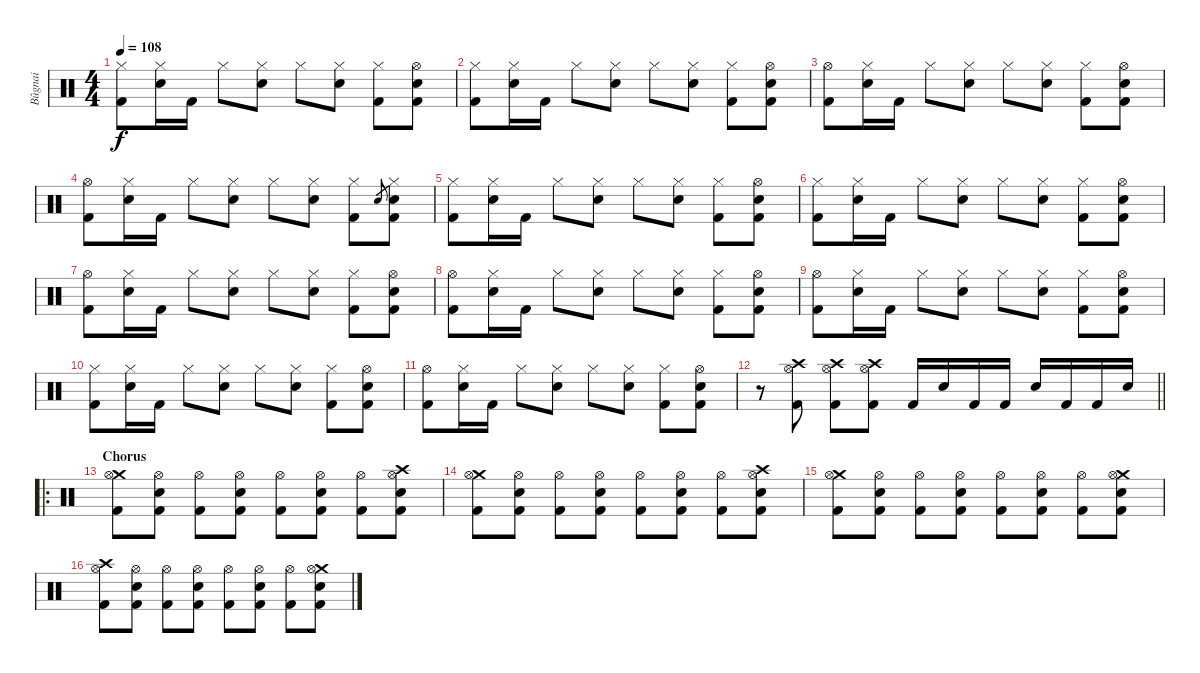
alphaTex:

\track ("Bûgnai" "Bûgnai") {instrument percussion}
\staff {score}
\articulation defaults
\ts (4 4)
\tempo 108
\clef neutral
\ks c
("Hi-Hat (closed)" "Kick (hit) 2").8{dy f} ("Hi-Hat (closed)" "Snare (hit) 2").16 "Kick (hit) 2".16 "Hi-Hat (closed)".8 ("Hi-Hat (closed)" "Snare (hit) 2").8 "Hi-Hat (closed)".8 ("Hi-Hat (closed)" "Snare (hit) 2").8 ("Hi-Hat (closed)" "Kick (hit) 2").8 ("Hi-Hat (open)" "Snare (hit) 2" "Kick (hit) 2").8 |
("Hi-Hat (closed)" "Kick (hit) 2").8 ("Hi-Hat (closed)" "Snare (hit) 2").16 "Kick (hit) 2".16 "Hi-Hat (closed)".8 ("Hi-Hat (closed)" "Snare (hit) 2").8 "Hi-Hat (closed)".8 ("Hi-Hat (closed)" "Snare (hit) 2").8 ("Hi-Hat (closed)" "Kick (hit) 2").8 ("Hi-Hat (open)" "Snare (hit) 2" "Kick (hit) 2").8 |
("Hi-Hat (open)" "Kick (hit) 2").8 ("Hi-Hat (closed)" "Snare (hit) 2").16 "Kick (hit) 2".16 "Hi-Hat (closed)".8 ("Hi-Hat (closed)" "Snare (hit) 2").8 "Hi-Hat (closed)".8 ("Hi-Hat (closed)" "Snare (hit) 2").8 ("Hi-Hat (closed)" "Kick (hit) 2").8 ("Hi-Hat (open)" "Snare (hit) 2" "Kick (hit) 2").8 |
("Hi-Hat (open)" "Kick (hit) 2").8 ("Hi-Hat (closed)" "Snare (hit) 2").16 "Kick (hit) 2".16 "Hi-Hat (closed)".8 ("Hi-Hat (closed)" "Snare (hit) 2").8 "Hi-Hat (closed)".8 ("Hi-Hat (closed)" "Snare (hit) 2").8 ("Hi-Hat (closed)" "Kick (hit) 2").8 "Snare (hit) 2".8{gr} ("Hi-Hat (closed)" "Snare (hit) 2" "Kick (hit) 2").8 |
("Hi-Hat (closed)" "Kick (hit) 2").8 ("Hi-Hat (closed)" "Snare (hit) 2").16 "Kick (hit) 2".16 "Hi-Hat (closed)".8 ("Hi-Hat (closed)" "Snare (hit) 2").8 "Hi-Hat (closed)".8 ("Hi-Hat (closed)" "Snare (hit) 2").8 ("Hi-Hat (closed)" "Kick (hit) 2").8 ("Hi-Hat (open)" "Snare (hit) 2" "Kick (hit) 2").8 |
("Hi-Hat (closed)" "Kick (hit) 2").8 ("Hi-Hat (closed)" "Snare (hit) 2").16 "Kick (hit) 2".16 "Hi-Hat (closed)".8 ("Hi-Hat (closed)" "Snare (hit) 2").8 "Hi-Hat (closed)".8 ("Hi-Hat (closed)" "Snare (hit) 2").8 ("Hi-Hat (closed)" "Kick (hit) 2").8 ("Hi-Hat (open)" "Snare (hit) 2" "Kick (hit) 2").8 |
("Hi-Hat (open)" "Kick (hit) 2").8 ("Hi-Hat (closed)" "Snare (hit) 2").16 "Kick (hit) 2".16 "Hi-Hat (closed)".8 ("Hi-Hat (closed)" "Snare (hit) 2").8 "Hi-Hat (closed)".8 ("Hi-Hat (closed)" "Snare (hit) 2").8 ("Hi-Hat (closed)" "Kick (hit) 2").8 ("Hi-Hat (open)" "Snare (hit) 2" "Kick (hit) 2").8 |
("Hi-Hat (open)" "Kick (hit) 2").8 ("Hi-Hat (closed)" "Snare (hit) 2").16 "Kick (hit) 2".16 "Hi-Hat (closed)".8 ("Hi-Hat (closed)" "Snare (hit) 2").8 "Hi-Hat (closed)".8 ("Hi-Hat (closed)" "Snare (hit) 2").8 ("Hi-Hat (closed)" "Kick (hit) 2").8 ("Hi-Hat (open)" "Snare (hit) 2" "Kick (hit) 2").8 |
("Hi-Hat (open)" "Kick (hit) 2").8 ("Hi-Hat (closed)" "Snare (hit) 2").16 "Kick (hit) 2".16 "Hi-Hat (closed)".8 ("Hi-Hat (closed)" "Snare (hit) 2").8 "Hi-Hat (closed)".8 ("Hi-Hat (closed)" "Snare (hit) 2").8 ("Hi-Hat (closed)" "Kick (hit) 2").8 ("Hi-Hat (open)" "Snare (hit) 2" "Kick (hit) 2").8 |
("Hi-Hat (closed)" "Kick (hit) 2").8 ("Hi-Hat (closed)" "Snare (hit) 2").16 "Kick (hit) 2".16 "Hi-Hat (closed)".8 ("Hi-Hat (closed)" "Snare (hit) 2").8 "Hi-Hat (closed)".8 ("Hi-Hat (closed)" "Snare (hit) 2").8 ("Hi-Hat (closed)" "Kick (hit) 2").8 ("Hi-Hat (open)" "Snare (hit) 2" "Kick (hit) 2").8 |
("Hi-Hat (open)" "Kick (hit) 2").8 ("Hi-Hat (closed)" "Snare (hit) 2").16 "Kick (hit) 2".16 "Hi-Hat (closed)".8 ("Hi-Hat (closed)" "Snare (hit) 2").8 "Hi-Hat (closed)".8 ("Hi-Hat (closed)" "Snare (hit) 2").8 ("Hi-Hat (closed)" "Kick (hit) 2").8 ("Hi-Hat (open)" "Snare (hit) 2" "Kick (hit) 2").8 |
\barLineRight lightlight
r.8 ("Crash high (hit)" "Hi-Hat (open)" "Kick (hit) 2").8 ("Crash high (hit)" "Hi-Hat (open)" "Kick (hit) 2").8 ("Crash high (hit)" "Hi-Hat (open)" "Kick (hit) 2").8 "Kick (hit) 2".16 "Snare (hit) 2".16 "Kick (hit) 2".16 "Kick (hit) 2".16 "Snare (hit) 2".16 "Kick (hit) 2".16 "Kick (hit) 2".16 "Snare (hit) 2".16 |
\ro
\section ("" "Chorus")
("Crash medium (hit)" "Hi-Hat (open)" "Kick (hit) 2").8 ("Hi-Hat (open)" "Snare (hit) 2" "Kick (hit) 2").8 ("Hi-Hat (open)" "Kick (hit) 2").8 ("Hi-Hat (open)" "Snare (hit) 2" "Kick (hit) 2").8 ("Hi-Hat (open)" "Kick (hit) 2").8 ("Hi-Hat (open)" "Snare (hit) 2" "Kick (hit) 2").8 ("Hi-Hat (open)" "Kick (hit) 2").8 ("Crash high (hit)" "Hi-Hat (open)" "Snare (hit) 2" "Kick (hit) 2").8 |
("Crash medium (hit)" "Hi-Hat (open)" "Kick (hit) 2").8 ("Hi-Hat (open)" "Snare (hit) 2" "Kick (hit) 2").8 ("Hi-Hat (open)" "Kick (hit) 2").8 ("Hi-Hat (open)" "Snare (hit) 2" "Kick (hit) 2").8 ("Hi-Hat (open)" "Kick (hit) 2").8 ("Hi-Hat (open)" "Snare (hit) 2" "Kick (hit) 2").8 ("Hi-Hat (open)" "Kick (hit) 2").8 ("Crash high (hit)" "Hi-Hat (open)" "Snare (hit) 2" "Kick (hit) 2").8 |
("Crash medium (hit)" "Hi-Hat (open)" "Kick (hit) 2").8 ("Hi-Hat (open)" "Snare (hit) 2" "Kick (hit) 2").8 ("Hi-Hat (open)" "Kick (hit) 2").8 ("Hi-Hat (open)" "Snare (hit) 2" "Kick (hit) 2").8 ("Hi-Hat (open)" "Kick (hit) 2").8 ("Hi-Hat (open)" "Snare (hit) 2" "Kick (hit) 2").8 ("Hi-Hat (open)" "Kick (hit) 2").8 ("Crash medium (hit)" "Hi-Hat (open)" "Snare (hit) 2" "Kick (hit) 2").8 |
("Crash high (hit)" "Hi-Hat (open)" "Kick (hit) 2").8 ("Hi-Hat (open)" "Snare (hit) 2" "Kick (hit) 2").8 ("Hi-Hat (open)" "Kick (hit) 2").8 ("Hi-Hat (open)" "Snare (hit) 2" "Kick (hit) 2").8 ("Hi-Hat (open)" "Kick (hit) 2").8 ("Hi-Hat (open)" "Snare (hit) 2" "Kick (hit) 2").8 ("Hi-Hat (open)" "Kick (hit) 2").8 ("Crash medium (hit)" "Hi-Hat (open)" "Snare (hit) 2" "Kick (hit) 2").8
